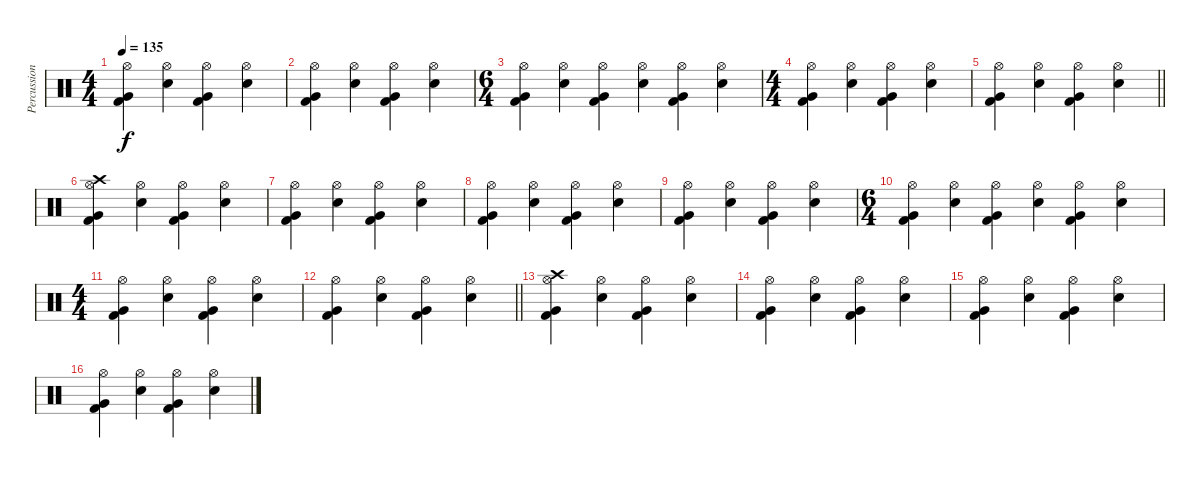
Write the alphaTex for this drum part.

\track ("Percussion" "Percussion") {instrument percussion}
\staff {score}
\articulation defaults
\ts (4 4)
\tempo 135
\clef neutral
\ks c
("Hi-Hat (open)" "Very Low Tom (hit)" "Kick (hit) 2").4{dy f} ("Hi-Hat (open)" "Electric Snare (hit)").4 ("Hi-Hat (open)" "Very Low Tom (hit)" "Kick (hit) 2").4 ("Hi-Hat (open)" "Electric Snare (hit)").4 |
("Hi-Hat (open)" "Very Low Tom (hit)" "Kick (hit) 2").4 ("Hi-Hat (open)" "Electric Snare (hit)").4 ("Hi-Hat (open)" "Very Low Tom (hit)" "Kick (hit) 2").4 ("Hi-Hat (open)" "Electric Snare (hit)").4 |
\ts (6 4)
("Hi-Hat (open)" "Very Low Tom (hit)" "Kick (hit) 2").4 ("Hi-Hat (open)" "Electric Snare (hit)").4 ("Hi-Hat (open)" "Very Low Tom (hit)" "Kick (hit) 2").4 ("Hi-Hat (open)" "Electric Snare (hit)").4 ("Hi-Hat (open)" "Very Low Tom (hit)" "Kick (hit) 2").4 ("Hi-Hat (open)" "Electric Snare (hit)").4 |
\ts (4 4)
("Hi-Hat (open)" "Very Low Tom (hit)" "Kick (hit) 2").4 ("Hi-Hat (open)" "Electric Snare (hit)").4 ("Hi-Hat (open)" "Very Low Tom (hit)" "Kick (hit) 2").4 ("Hi-Hat (open)" "Electric Snare (hit)").4 |
\barLineRight lightlight
("Hi-Hat (open)" "Very Low Tom (hit)" "Kick (hit) 2").4 ("Hi-Hat (open)" "Electric Snare (hit)").4 ("Hi-Hat (open)" "Very Low Tom (hit)" "Kick (hit) 2").4 ("Hi-Hat (open)" "Electric Snare (hit)").4 |
("Hi-Hat (open)" "Crash high (hit)" "Very Low Tom (hit)" "Kick (hit) 2").4 ("Hi-Hat (open)" "Electric Snare (hit)").4 ("Hi-Hat (open)" "Very Low Tom (hit)" "Kick (hit) 2").4 ("Hi-Hat (open)" "Electric Snare (hit)").4 |
("Hi-Hat (open)" "Very Low Tom (hit)" "Kick (hit) 2").4 ("Hi-Hat (open)" "Electric Snare (hit)").4 ("Hi-Hat (open)" "Very Low Tom (hit)" "Kick (hit) 2").4 ("Hi-Hat (open)" "Electric Snare (hit)").4 |
("Hi-Hat (open)" "Very Low Tom (hit)" "Kick (hit) 2").4 ("Hi-Hat (open)" "Electric Snare (hit)").4 ("Hi-Hat (open)" "Very Low Tom (hit)" "Kick (hit) 2").4 ("Hi-Hat (open)" "Electric Snare (hit)").4 |
("Hi-Hat (open)" "Very Low Tom (hit)" "Kick (hit) 2").4 ("Hi-Hat (open)" "Electric Snare (hit)").4 ("Hi-Hat (open)" "Very Low Tom (hit)" "Kick (hit) 2").4 ("Hi-Hat (open)" "Electric Snare (hit)").4 |
\ts (6 4)
("Hi-Hat (open)" "Very Low Tom (hit)" "Kick (hit) 2").4 ("Hi-Hat (open)" "Electric Snare (hit)").4 ("Hi-Hat (open)" "Very Low Tom (hit)" "Kick (hit) 2").4 ("Hi-Hat (open)" "Electric Snare (hit)").4 ("Hi-Hat (open)" "Very Low Tom (hit)" "Kick (hit) 2").4 ("Hi-Hat (open)" "Electric Snare (hit)").4 |
\ts (4 4)
("Hi-Hat (open)" "Very Low Tom (hit)" "Kick (hit) 2").4 ("Hi-Hat (open)" "Electric Snare (hit)").4 ("Hi-Hat (open)" "Very Low Tom (hit)" "Kick (hit) 2").4 ("Hi-Hat (open)" "Electric Snare (hit)").4 |
\barLineRight lightlight
("Hi-Hat (open)" "Very Low Tom (hit)" "Kick (hit) 2").4 ("Hi-Hat (open)" "Electric Snare (hit)").4 ("Hi-Hat (open)" "Very Low Tom (hit)" "Kick (hit) 2").4 ("Hi-Hat (open)" "Electric Snare (hit)").4 |
("Hi-Hat (open)" "Crash high (hit)" "Very Low Tom (hit)" "Kick (hit) 2").4 ("Hi-Hat (open)" "Electric Snare (hit)").4 ("Hi-Hat (open)" "Very Low Tom (hit)" "Kick (hit) 2").4 ("Hi-Hat (open)" "Electric Snare (hit)").4 |
("Hi-Hat (open)" "Very Low Tom (hit)" "Kick (hit) 2").4 ("Hi-Hat (open)" "Electric Snare (hit)").4 ("Hi-Hat (open)" "Very Low Tom (hit)" "Kick (hit) 2").4 ("Hi-Hat (open)" "Electric Snare (hit)").4 |
("Hi-Hat (open)" "Very Low Tom (hit)" "Kick (hit) 2").4 ("Hi-Hat (open)" "Electric Snare (hit)").4 ("Hi-Hat (open)" "Very Low Tom (hit)" "Kick (hit) 2").4 ("Hi-Hat (open)" "Electric Snare (hit)").4 |
("Hi-Hat (open)" "Very Low Tom (hit)" "Kick (hit) 2").4 ("Hi-Hat (open)" "Electric Snare (hit)").4 ("Hi-Hat (open)" "Very Low Tom (hit)" "Kick (hit) 2").4 ("Hi-Hat (open)" "Electric Snare (hit)").4
